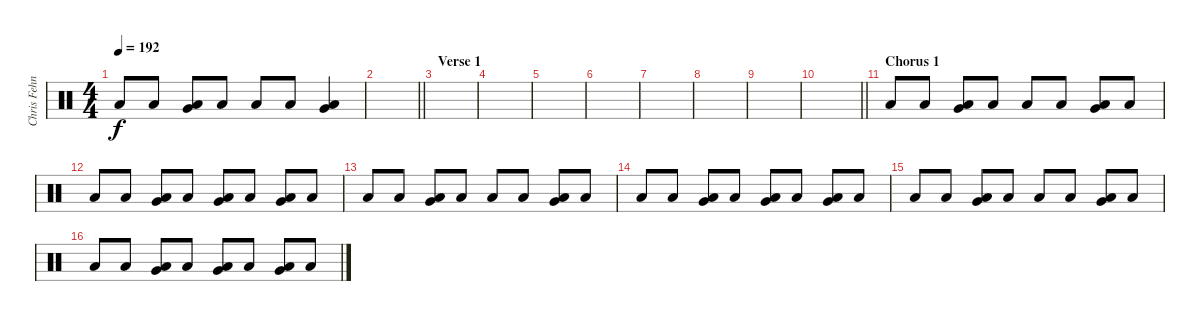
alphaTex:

\track ("Chris Fehn" "Chris Fehn") {instrument percussion}
\staff {score}
\articulation defaults
\ts (4 4)
\tempo 192
\clef neutral
\ks c "Low Floor Tom (hit)".8{dy f} "Low Floor Tom (hit)".8
("Very Low Tom (hit)" "Low Floor Tom (hit)").8 "Low Floor Tom (hit)".8 "Low Floor Tom (hit)".8 "Low Floor Tom (hit)".8 ("Very Low Tom (hit)" "Low Floor Tom (hit)").4 |
\barLineRight lightlight
|
\section ("" "Verse 1")
|
|
|
|
|
|
|
\barLineRight lightlight
|
\section ("" "Chorus 1")
"Low Floor Tom (hit)".8 "Low Floor Tom (hit)".8 ("Very Low Tom (hit)" "Low Floor Tom (hit)").8 "Low Floor Tom (hit)".8 "Low Floor Tom (hit)".8 "Low Floor Tom (hit)".8 ("Very Low Tom (hit)" "Low Floor Tom (hit)").8 "Low Floor Tom (hit)".8 |
"Low Floor Tom (hit)".8 "Low Floor Tom (hit)".8 ("Very Low Tom (hit)" "Low Floor Tom (hit)").8 "Low Floor Tom (hit)".8 ("Very Low Tom (hit)" "Low Floor Tom (hit)").8 "Low Floor Tom (hit)".8 ("Very Low Tom (hit)" "Low Floor Tom (hit)").8 "Low Floor Tom (hit)".8 |
"Low Floor Tom (hit)".8 "Low Floor Tom (hit)".8 ("Very Low Tom (hit)" "Low Floor Tom (hit)").8 "Low Floor Tom (hit)".8 "Low Floor Tom (hit)".8 "Low Floor Tom (hit)".8 ("Very Low Tom (hit)" "Low Floor Tom (hit)").8 "Low Floor Tom (hit)".8 |
"Low Floor Tom (hit)".8 "Low Floor Tom (hit)".8 ("Very Low Tom (hit)" "Low Floor Tom (hit)").8 "Low Floor Tom (hit)".8 ("Very Low Tom (hit)" "Low Floor Tom (hit)").8 "Low Floor Tom (hit)".8 ("Very Low Tom (hit)" "Low Floor Tom (hit)").8 "Low Floor Tom (hit)".8 |
"Low Floor Tom (hit)".8 "Low Floor Tom (hit)".8 ("Very Low Tom (hit)" "Low Floor Tom (hit)").8 "Low Floor Tom (hit)".8 "Low Floor Tom (hit)".8 "Low Floor Tom (hit)".8 ("Very Low Tom (hit)" "Low Floor Tom (hit)").8 "Low Floor Tom (hit)".8 |
"Low Floor Tom (hit)".8 "Low Floor Tom (hit)".8 ("Very Low Tom (hit)" "Low Floor Tom (hit)").8 "Low Floor Tom (hit)".8 ("Very Low Tom (hit)" "Low Floor Tom (hit)").8 "Low Floor Tom (hit)".8 ("Very Low Tom (hit)" "Low Floor Tom (hit)").8 "Low Floor Tom (hit)".8
